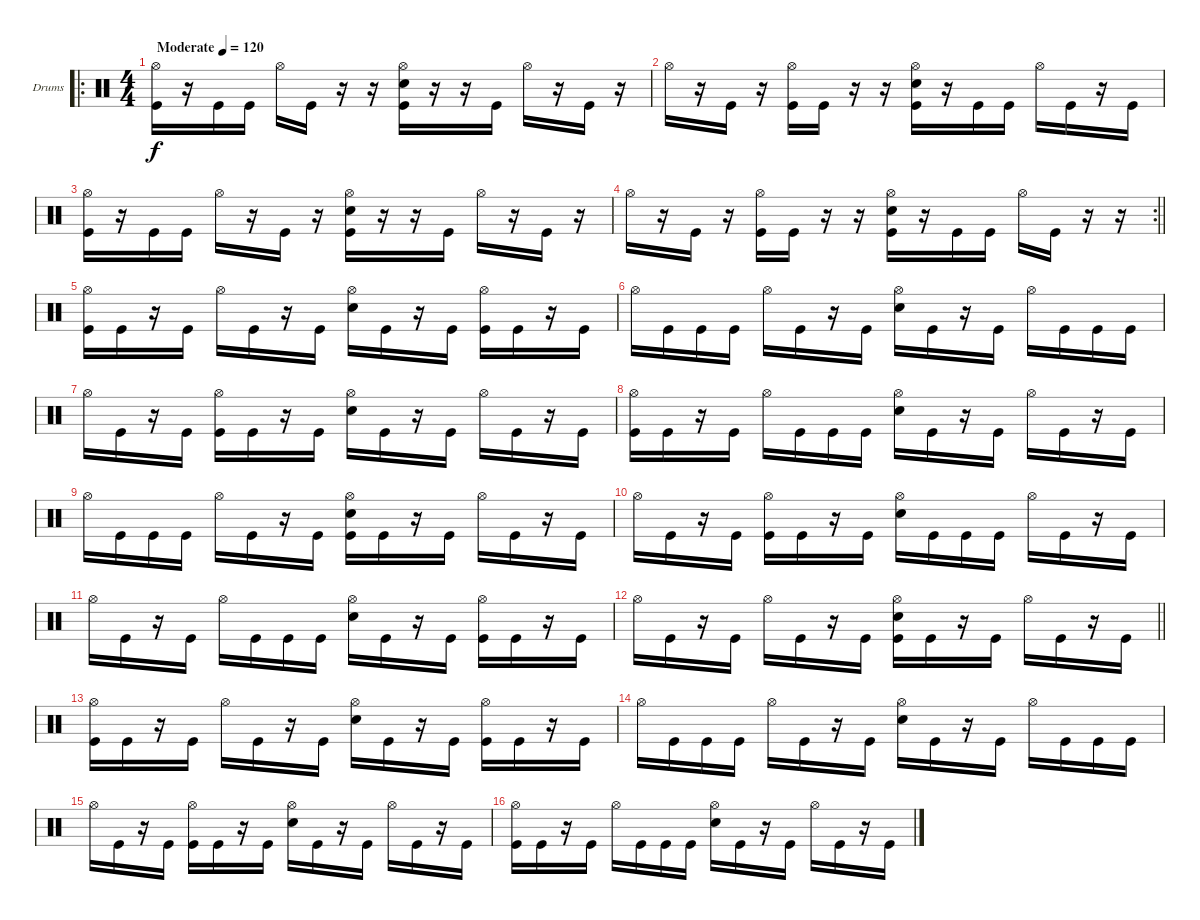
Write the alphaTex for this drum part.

\bracketExtendMode groupsimilarinstruments
\firstSystemTrackNameOrientation horizontal
\otherSystemsTrackNameOrientation horizontal
\track ("Drumkit" "Drums") {instrument percussion}
\staff {score}
\articulation defaults
\ro
\ts (4 4)
\beaming (8 2 2 2 2)
\tempo (120 "Moderate")
\clef neutral
\ks c
("Hi-Hat (open)" "Kick (hit)").16{dy f} r.16 "Kick (hit)".16 "Kick (hit)".16 "Hi-Hat (open)".16 "Kick (hit)".16 r.16 r.16 ("Hi-Hat (open)" "Snare (hit) 2" "Kick (hit)").16 r.16 r.16 "Kick (hit)".16 "Hi-Hat (open)".16 r.16 "Kick (hit)".16 r.16 |
"Hi-Hat (open)".16 r.16 "Kick (hit)".16 r.16 ("Hi-Hat (open)" "Kick (hit)").16 "Kick (hit)".16 r.16 r.16 ("Hi-Hat (open)" "Snare (hit) 2" "Kick (hit)").16 r.16 "Kick (hit)".16 "Kick (hit)".16 "Hi-Hat (open)".16 "Kick (hit)".16 r.16 "Kick (hit)".16 |
("Hi-Hat (open)" "Kick (hit)").16 r.16 "Kick (hit)".16 "Kick (hit)".16 "Hi-Hat (open)".16 r.16 "Kick (hit)".16 r.16 ("Hi-Hat (open)" "Snare (hit) 2" "Kick (hit)").16 r.16 r.16 "Kick (hit)".16 "Hi-Hat (open)".16 r.16 "Kick (hit)".16 r.16 |
\rc 2
\barLineRight lightlight "Hi-Hat (open)".16
r.16 "Kick (hit)".16 r.16 ("Hi-Hat (open)" "Kick (hit)").16 "Kick (hit)".16 r.16 r.16 ("Hi-Hat (open)" "Snare (hit) 2" "Kick (hit)").16 r.16 "Kick (hit)".16 "Kick (hit)".16 "Hi-Hat (open)".16 "Kick (hit)".16 r.16 r.16 |
("Hi-Hat (open)" "Kick (hit)").16 "Kick (hit)".16 r.16 "Kick (hit)".16 "Hi-Hat (open)".16 "Kick (hit)".16 r.16 "Kick (hit)".16 ("Hi-Hat (open)" "Snare (hit) 2").16 "Kick (hit)".16 r.16 "Kick (hit)".16 ("Hi-Hat (open)" "Kick (hit)").16 "Kick (hit)".16 r.16 "Kick (hit)".16 |
"Hi-Hat (open)".16 "Kick (hit)".16 "Kick (hit)".16 "Kick (hit)".16 "Hi-Hat (open)".16 "Kick (hit)".16 r.16 "Kick (hit)".16 ("Hi-Hat (open)" "Snare (hit) 2").16 "Kick (hit)".16 r.16 "Kick (hit)".16 "Hi-Hat (open)".16 "Kick (hit)".16 "Kick (hit)".16 "Kick (hit)".16 |
"Hi-Hat (open)".16 "Kick (hit)".16 r.16 "Kick (hit)".16 ("Hi-Hat (open)" "Kick (hit)").16 "Kick (hit)".16 r.16 "Kick (hit)".16 ("Hi-Hat (open)" "Snare (hit) 2").16 "Kick (hit)".16 r.16 "Kick (hit)".16 "Hi-Hat (open)".16 "Kick (hit)".16 r.16 "Kick (hit)".16 |
("Hi-Hat (open)" "Kick (hit)").16 "Kick (hit)".16 r.16 "Kick (hit)".16 "Hi-Hat (open)".16 "Kick (hit)".16 "Kick (hit)".16 "Kick (hit)".16 ("Hi-Hat (open)" "Snare (hit) 2").16 "Kick (hit)".16 r.16 "Kick (hit)".16 "Hi-Hat (open)".16 "Kick (hit)".16 r.16 "Kick (hit)".16 |
"Hi-Hat (open)".16 "Kick (hit)".16 "Kick (hit)".16 "Kick (hit)".16 "Hi-Hat (open)".16 "Kick (hit)".16 r.16 "Kick (hit)".16 ("Hi-Hat (open)" "Snare (hit) 2" "Kick (hit)").16 "Kick (hit)".16 r.16 "Kick (hit)".16 "Hi-Hat (open)".16 "Kick (hit)".16 r.16 "Kick (hit)".16 |
"Hi-Hat (open)".16 "Kick (hit)".16 r.16 "Kick (hit)".16 ("Hi-Hat (open)" "Kick (hit)").16 "Kick (hit)".16 r.16 "Kick (hit)".16 ("Hi-Hat (open)" "Snare (hit) 2").16 "Kick (hit)".16 "Kick (hit)".16 "Kick (hit)".16 "Hi-Hat (open)".16 "Kick (hit)".16 r.16 "Kick (hit)".16 |
"Hi-Hat (open)".16 "Kick (hit)".16 r.16 "Kick (hit)".16 "Hi-Hat (open)".16 "Kick (hit)".16 "Kick (hit)".16 "Kick (hit)".16 ("Hi-Hat (open)" "Snare (hit) 2").16 "Kick (hit)".16 r.16 "Kick (hit)".16 ("Hi-Hat (open)" "Kick (hit)").16 "Kick (hit)".16 r.16 "Kick (hit)".16 |
\barLineRight lightlight "Hi-Hat (open)".16 "Kick (hit)".16
r.16 "Kick (hit)".16 "Hi-Hat (open)".16 "Kick (hit)".16 r.16 "Kick (hit)".16 ("Hi-Hat (open)" "Snare (hit) 2" "Kick (hit)").16 "Kick (hit)".16 r.16 "Kick (hit)".16 "Hi-Hat (open)".16 "Kick (hit)".16 r.16 "Kick (hit)".16 |
("Hi-Hat (open)" "Kick (hit)").16 "Kick (hit)".16 r.16 "Kick (hit)".16 "Hi-Hat (open)".16 "Kick (hit)".16 r.16 "Kick (hit)".16 ("Hi-Hat (open)" "Snare (hit) 2").16 "Kick (hit)".16 r.16 "Kick (hit)".16 ("Hi-Hat (open)" "Kick (hit)").16 "Kick (hit)".16 r.16 "Kick (hit)".16 |
"Hi-Hat (open)".16 "Kick (hit)".16 "Kick (hit)".16 "Kick (hit)".16 "Hi-Hat (open)".16 "Kick (hit)".16 r.16 "Kick (hit)".16 ("Hi-Hat (open)" "Snare (hit) 2").16 "Kick (hit)".16 r.16 "Kick (hit)".16 "Hi-Hat (open)".16 "Kick (hit)".16 "Kick (hit)".16 "Kick (hit)".16 |
"Hi-Hat (open)".16 "Kick (hit)".16 r.16 "Kick (hit)".16 ("Hi-Hat (open)" "Kick (hit)").16 "Kick (hit)".16 r.16 "Kick (hit)".16 ("Hi-Hat (open)" "Snare (hit) 2").16 "Kick (hit)".16 r.16 "Kick (hit)".16 "Hi-Hat (open)".16 "Kick (hit)".16 r.16 "Kick (hit)".16 |
("Hi-Hat (open)" "Kick (hit)").16 "Kick (hit)".16 r.16 "Kick (hit)".16 "Hi-Hat (open)".16 "Kick (hit)".16 "Kick (hit)".16 "Kick (hit)".16 ("Hi-Hat (open)" "Snare (hit) 2").16 "Kick (hit)".16 r.16 "Kick (hit)".16 "Hi-Hat (open)".16 "Kick (hit)".16 r.16 "Kick (hit)".16
